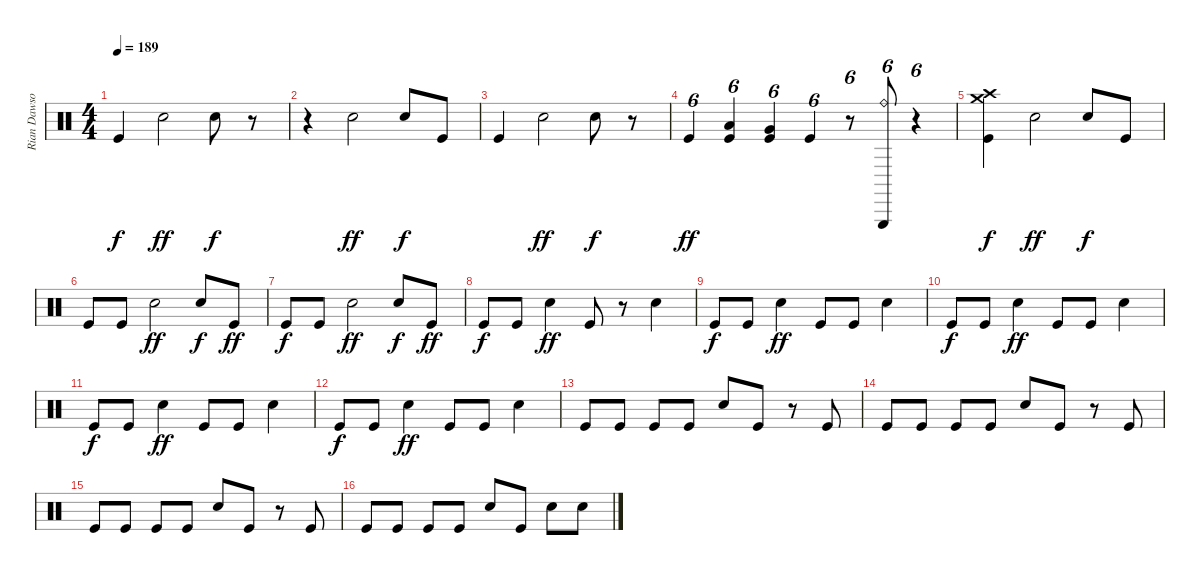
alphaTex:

\track ("Rian Dawson" "Rian Dawso") {instrument percussion}
\staff {score}
\articulation defaults
\ts (4 4)
\tempo 189
\clef neutral
\ks c "Kick (hit)".4{dy f} "Snare (hit) 2".2{dy ff} "Snare (hit) 2".8{dy f}
r.8 |
r.4 "Snare (hit) 2".2{dy ff} "Snare (hit) 2".8{dy f} "Kick (hit)".8 |
"Kick (hit)".4 "Snare (hit) 2".2{dy ff} "Snare (hit) 2".8{dy f} r.8 |
"Kick (hit)".4{tu (6 4) dy ff} ("Low Floor Tom (hit)" "Kick (hit)").4{tu (6 4)} ("Very Low Tom (hit)" "Kick (hit)").4{tu (6 4)} "Kick (hit)".4{tu (6 4)} r.8{tu (6 4)} ("Triangle (hit)" "Ride (bell)").8{tu (6 4)} r.4{tu (6 4)} |
("Crash high (hit)" "Crash medium (hit)" "Kick (hit)").4{dy f} "Snare (hit) 2".2{dy ff} "Snare (hit) 2".8{dy f} "Kick (hit)".8 |
"Kick (hit)".8 "Kick (hit)".8 "Snare (hit) 2".2{dy ff} "Snare (hit) 2".8{dy f} "Kick (hit)".8{dy ff} |
"Kick (hit)".8{dy f} "Kick (hit)".8 "Snare (hit) 2".2{dy ff} "Snare (hit) 2".8{dy f} "Kick (hit)".8{dy ff} |
"Kick (hit)".8{dy f} "Kick (hit)".8 "Snare (hit) 2".4{dy ff} "Kick (hit)".8 r.8 "Snare (hit) 2".4 |
"Kick (hit)".8{dy f} "Kick (hit)".8 "Snare (hit) 2".4{dy ff} "Kick (hit)".8 "Kick (hit)".8 "Snare (hit) 2".4 |
"Kick (hit)".8{dy f} "Kick (hit)".8 "Snare (hit) 2".4{dy ff} "Kick (hit)".8 "Kick (hit)".8 "Snare (hit) 2".4 |
"Kick (hit)".8{dy f} "Kick (hit)".8 "Snare (hit) 2".4{dy ff} "Kick (hit)".8 "Kick (hit)".8 "Snare (hit) 2".4 |
"Kick (hit)".8{dy f} "Kick (hit)".8 "Snare (hit) 2".4{dy ff} "Kick (hit)".8 "Kick (hit)".8 "Snare (hit) 2".4 |
"Kick (hit)".8 "Kick (hit)".8 "Kick (hit)".8 "Kick (hit)".8 "Snare (hit) 2".8 "Kick (hit)".8 r.8 "Kick (hit)".8 |
"Kick (hit)".8 "Kick (hit)".8 "Kick (hit)".8 "Kick (hit)".8 "Snare (hit) 2".8 "Kick (hit)".8 r.8 "Kick (hit)".8 |
"Kick (hit)".8 "Kick (hit)".8 "Kick (hit)".8 "Kick (hit)".8 "Snare (hit) 2".8 "Kick (hit)".8 r.8 "Kick (hit)".8 |
"Kick (hit)".8 "Kick (hit)".8 "Kick (hit)".8 "Kick (hit)".8 "Snare (hit) 2".8 "Kick (hit)".8 "Snare (hit) 2".8 "Snare (hit) 2".8
